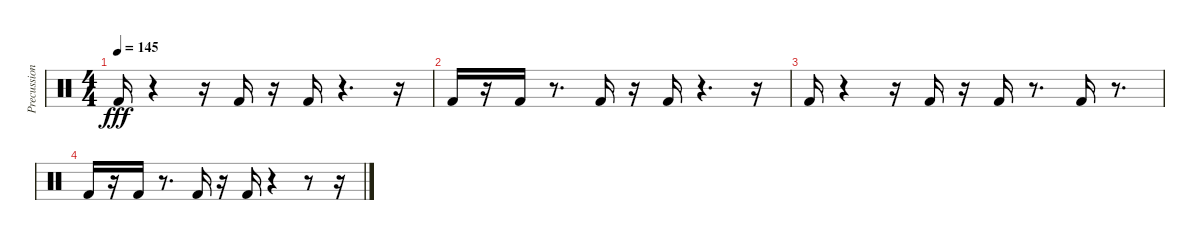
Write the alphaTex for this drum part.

\track ("Precussion" "Precussion") {instrument percussion}
\staff {score}
\articulation defaults
\ts (4 4)
\tempo 145
\clef neutral
\ks c "Kick (hit) 2".16{dy fff}
r.4 r.16 "Kick (hit) 2".16 r.16 "Kick (hit) 2".16 r.4{d} r.16 |
"Kick (hit) 2".16 r.16 "Kick (hit) 2".16 r.8{d} "Kick (hit) 2".16 r.16 "Kick (hit) 2".16 r.4{d} r.16 |
"Kick (hit) 2".16 r.4 r.16 "Kick (hit) 2".16 r.16 "Kick (hit) 2".16 r.8{d} "Kick (hit) 2".16 r.8{d} |
"Kick (hit) 2".16 r.16 "Kick (hit) 2".16 r.8{d} "Kick (hit) 2".16 r.16 "Kick (hit) 2".16 r.4 r.8 r.16
